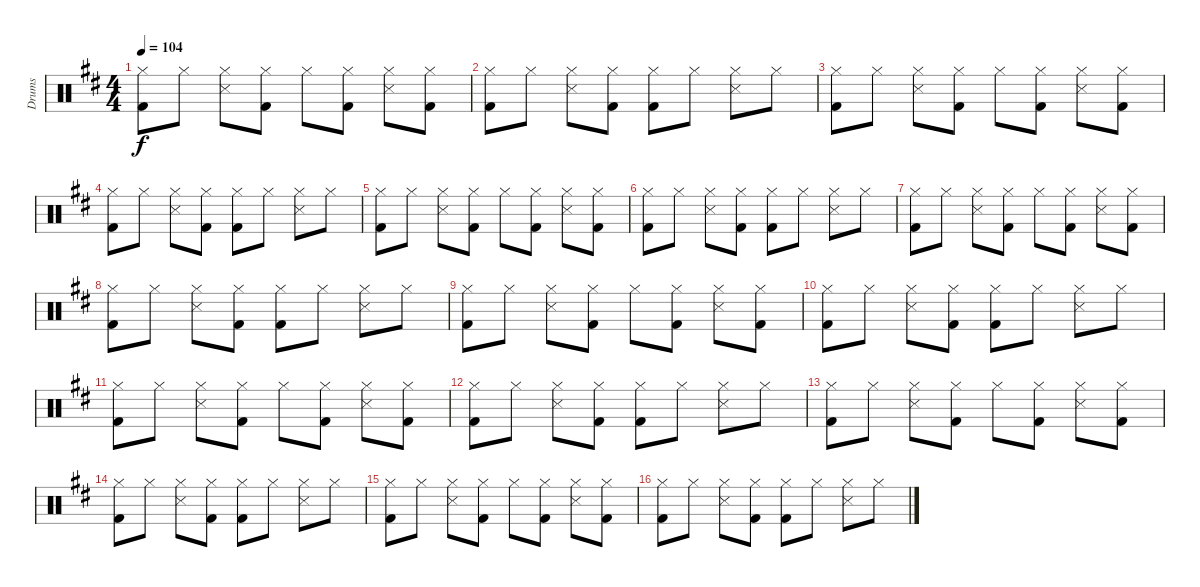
\track ("Drums" "Drums") {instrument percussion}
\staff {score}
\articulation defaults
\ts (4 4)
\tempo 104
\clef neutral
\ks d
("Hi-Hat (closed)" "Kick (hit) 2").8{dy f} "Hi-Hat (closed)".8 ("Hi-Hat (closed)" "Snare (side stick) 3").8 ("Hi-Hat (closed)" "Kick (hit) 2").8 "Hi-Hat (closed)".8 ("Hi-Hat (closed)" "Kick (hit) 2").8 ("Hi-Hat (closed)" "Snare (side stick) 3").8 ("Hi-Hat (closed)" "Kick (hit) 2").8 |
("Hi-Hat (closed)" "Kick (hit) 2").8 "Hi-Hat (closed)".8 ("Hi-Hat (closed)" "Snare (side stick) 3").8 ("Hi-Hat (closed)" "Kick (hit) 2").8 ("Hi-Hat (closed)" "Kick (hit) 2").8 "Hi-Hat (closed)".8 ("Hi-Hat (closed)" "Snare (side stick) 3").8 "Hi-Hat (closed)".8 |
("Hi-Hat (closed)" "Kick (hit) 2").8 "Hi-Hat (closed)".8 ("Hi-Hat (closed)" "Snare (side stick) 3").8 ("Hi-Hat (closed)" "Kick (hit) 2").8 "Hi-Hat (closed)".8 ("Hi-Hat (closed)" "Kick (hit) 2").8 ("Hi-Hat (closed)" "Snare (side stick) 3").8 ("Hi-Hat (closed)" "Kick (hit) 2").8 |
("Hi-Hat (closed)" "Kick (hit) 2").8 "Hi-Hat (closed)".8 ("Hi-Hat (closed)" "Snare (side stick) 3").8 ("Hi-Hat (closed)" "Kick (hit) 2").8 ("Hi-Hat (closed)" "Kick (hit) 2").8 "Hi-Hat (closed)".8 ("Hi-Hat (closed)" "Snare (side stick) 3").8 "Hi-Hat (closed)".8 |
("Hi-Hat (closed)" "Kick (hit) 2").8 "Hi-Hat (closed)".8 ("Hi-Hat (closed)" "Snare (side stick) 3").8 ("Hi-Hat (closed)" "Kick (hit) 2").8 "Hi-Hat (closed)".8 ("Hi-Hat (closed)" "Kick (hit) 2").8 ("Hi-Hat (closed)" "Snare (side stick) 3").8 ("Hi-Hat (closed)" "Kick (hit) 2").8 |
("Hi-Hat (closed)" "Kick (hit) 2").8 "Hi-Hat (closed)".8 ("Hi-Hat (closed)" "Snare (side stick) 3").8 ("Hi-Hat (closed)" "Kick (hit) 2").8 ("Hi-Hat (closed)" "Kick (hit) 2").8 "Hi-Hat (closed)".8 ("Hi-Hat (closed)" "Snare (side stick) 3").8 "Hi-Hat (closed)".8 |
("Hi-Hat (closed)" "Kick (hit) 2").8 "Hi-Hat (closed)".8 ("Hi-Hat (closed)" "Snare (side stick) 3").8 ("Hi-Hat (closed)" "Kick (hit) 2").8 "Hi-Hat (closed)".8 ("Hi-Hat (closed)" "Kick (hit) 2").8 ("Hi-Hat (closed)" "Snare (side stick) 3").8 ("Hi-Hat (closed)" "Kick (hit) 2").8 |
("Hi-Hat (closed)" "Kick (hit) 2").8 "Hi-Hat (closed)".8 ("Hi-Hat (closed)" "Snare (side stick) 3").8 ("Hi-Hat (closed)" "Kick (hit) 2").8 ("Hi-Hat (closed)" "Kick (hit) 2").8 "Hi-Hat (closed)".8 ("Hi-Hat (closed)" "Snare (side stick) 3").8 "Hi-Hat (closed)".8 |
("Hi-Hat (closed)" "Kick (hit) 2").8 "Hi-Hat (closed)".8 ("Hi-Hat (closed)" "Snare (side stick) 3").8 ("Hi-Hat (closed)" "Kick (hit) 2").8 "Hi-Hat (closed)".8 ("Hi-Hat (closed)" "Kick (hit) 2").8 ("Hi-Hat (closed)" "Snare (side stick) 3").8 ("Hi-Hat (closed)" "Kick (hit) 2").8 |
("Hi-Hat (closed)" "Kick (hit) 2").8 "Hi-Hat (closed)".8 ("Hi-Hat (closed)" "Snare (side stick) 3").8 ("Hi-Hat (closed)" "Kick (hit) 2").8 ("Hi-Hat (closed)" "Kick (hit) 2").8 "Hi-Hat (closed)".8 ("Hi-Hat (closed)" "Snare (side stick) 3").8 "Hi-Hat (closed)".8 |
("Hi-Hat (closed)" "Kick (hit) 2").8 "Hi-Hat (closed)".8 ("Hi-Hat (closed)" "Snare (side stick) 3").8 ("Hi-Hat (closed)" "Kick (hit) 2").8 "Hi-Hat (closed)".8 ("Hi-Hat (closed)" "Kick (hit) 2").8 ("Hi-Hat (closed)" "Snare (side stick) 3").8 ("Hi-Hat (closed)" "Kick (hit) 2").8 |
("Hi-Hat (closed)" "Kick (hit) 2").8 "Hi-Hat (closed)".8 ("Hi-Hat (closed)" "Snare (side stick) 3").8 ("Hi-Hat (closed)" "Kick (hit) 2").8 ("Hi-Hat (closed)" "Kick (hit) 2").8 "Hi-Hat (closed)".8 ("Hi-Hat (closed)" "Snare (side stick) 3").8 "Hi-Hat (closed)".8 |
("Hi-Hat (closed)" "Kick (hit) 2").8 "Hi-Hat (closed)".8 ("Hi-Hat (closed)" "Snare (side stick) 3").8 ("Hi-Hat (closed)" "Kick (hit) 2").8 "Hi-Hat (closed)".8 ("Hi-Hat (closed)" "Kick (hit) 2").8 ("Hi-Hat (closed)" "Snare (side stick) 3").8 ("Hi-Hat (closed)" "Kick (hit) 2").8 |
("Hi-Hat (closed)" "Kick (hit) 2").8 "Hi-Hat (closed)".8 ("Hi-Hat (closed)" "Snare (side stick) 3").8 ("Hi-Hat (closed)" "Kick (hit) 2").8 ("Hi-Hat (closed)" "Kick (hit) 2").8 "Hi-Hat (closed)".8 ("Hi-Hat (closed)" "Snare (side stick) 3").8 "Hi-Hat (closed)".8 |
("Hi-Hat (closed)" "Kick (hit) 2").8 "Hi-Hat (closed)".8 ("Hi-Hat (closed)" "Snare (side stick) 3").8 ("Hi-Hat (closed)" "Kick (hit) 2").8 "Hi-Hat (closed)".8 ("Hi-Hat (closed)" "Kick (hit) 2").8 ("Hi-Hat (closed)" "Snare (side stick) 3").8 ("Hi-Hat (closed)" "Kick (hit) 2").8 |
("Hi-Hat (closed)" "Kick (hit) 2").8 "Hi-Hat (closed)".8 ("Hi-Hat (closed)" "Snare (side stick) 3").8 ("Hi-Hat (closed)" "Kick (hit) 2").8 ("Hi-Hat (closed)" "Kick (hit) 2").8 "Hi-Hat (closed)".8 ("Hi-Hat (closed)" "Snare (side stick) 3").8 "Hi-Hat (closed)".8
